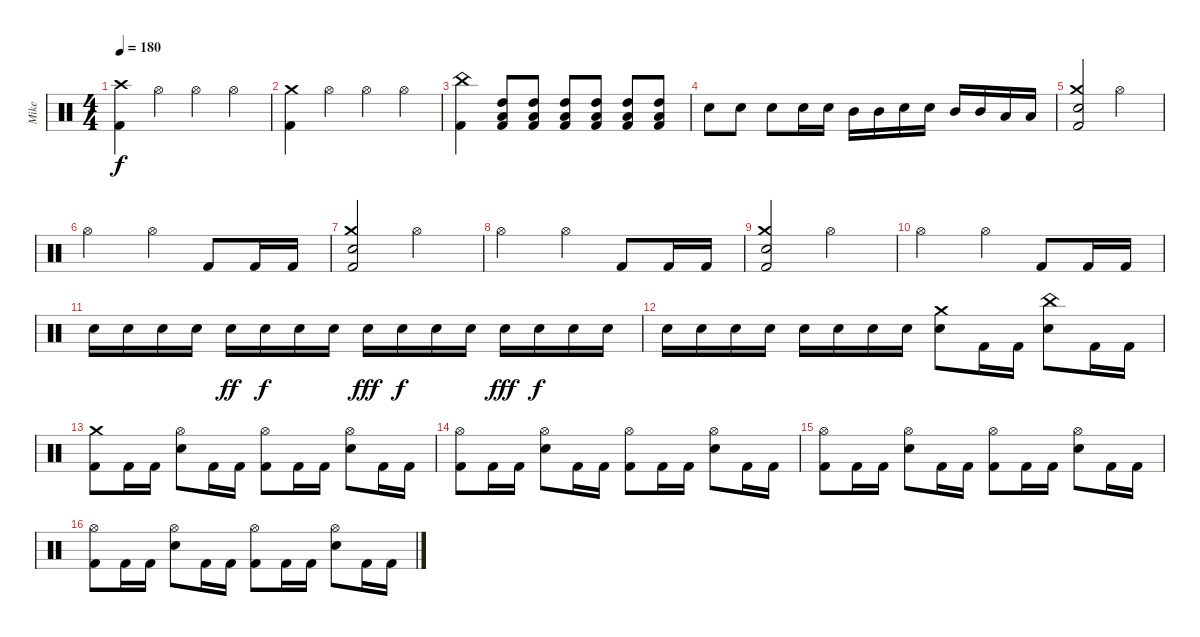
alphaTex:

\track ("Mike" "Mike") {instrument percussion}
\staff {score}
\articulation defaults
\ts (4 4)
\tempo 180
\clef neutral
\ks c
("Crash high (hit)" "Kick (hit) 2").4{dy f} "Hi-Hat (open)".4 "Hi-Hat (open)".4 "Hi-Hat (open)".4 |
("Crash medium (hit)" "Kick (hit) 2").4 "Hi-Hat (open)".4 "Hi-Hat (open)".4 "Hi-Hat (open)".4 |
("China (hit)" "Kick (hit) 2").4 ("High Tom (hit)" "Low Tom (hit)" "Kick (hit) 2").8 ("High Tom (hit)" "Low Tom (hit)" "Kick (hit) 2").8 ("High Tom (hit)" "Low Tom (hit)" "Kick (hit) 2").8 ("High Tom (hit)" "Low Tom (hit)" "Kick (hit) 2").8 ("High Tom (hit)" "Low Tom (hit)" "Kick (hit) 2").8 ("High Tom (hit)" "Low Tom (hit)" "Kick (hit) 2").8 |
"Electric Snare (hit)".8 "Electric Snare (hit)".8 "Electric Snare (hit)".8 "Electric Snare (hit)".16 "Electric Snare (hit)".16 "Mid Tom (hit)".16 "Mid Tom (hit)".16 "Electric Snare (hit)".16 "Electric Snare (hit)".16 "Mid Tom (hit)".16 "Mid Tom (hit)".16 "Low Tom (hit)".16 "Low Tom (hit)".16 |
("Crash medium (hit)" "Electric Snare (hit)" "Kick (hit) 2").2 "Hi-Hat (open)".2 |
"Hi-Hat (open)".2 "Hi-Hat (open)".4 "Kick (hit) 2".8 "Kick (hit) 2".16 "Kick (hit) 2".16 |
("Crash medium (hit)" "Electric Snare (hit)" "Kick (hit) 2").2 "Hi-Hat (open)".2 |
"Hi-Hat (open)".2 "Hi-Hat (open)".4 "Kick (hit) 2".8 "Kick (hit) 2".16 "Kick (hit) 2".16 |
("Crash medium (hit)" "Electric Snare (hit)" "Kick (hit) 2").2 "Hi-Hat (open)".2 |
"Hi-Hat (open)".2 "Hi-Hat (open)".4 "Kick (hit) 2".8 "Kick (hit) 2".16 "Kick (hit) 2".16 |
"Electric Snare (hit)".16 "Electric Snare (hit)".16 "Electric Snare (hit)".16 "Electric Snare (hit)".16 "Electric Snare (hit)".16{dy ff} "Electric Snare (hit)".16{dy f} "Electric Snare (hit)".16 "Electric Snare (hit)".16 "Electric Snare (hit)".16{dy fff} "Electric Snare (hit)".16{dy f} "Electric Snare (hit)".16 "Electric Snare (hit)".16 "Electric Snare (hit)".16{dy fff} "Electric Snare (hit)".16{dy f} "Electric Snare (hit)".16 "Electric Snare (hit)".16 |
"Electric Snare (hit)".16 "Electric Snare (hit)".16 "Electric Snare (hit)".16 "Electric Snare (hit)".16 "Electric Snare (hit)".16 "Electric Snare (hit)".16 "Electric Snare (hit)".16 "Electric Snare (hit)".16 ("Crash medium (hit)" "Electric Snare (hit)").8 "Kick (hit) 2".16 "Kick (hit) 2".16 ("China (hit)" "Electric Snare (hit)").8 "Kick (hit) 2".16 "Kick (hit) 2".16 |
("Crash medium (hit)" "Kick (hit) 2").8 "Kick (hit) 2".16 "Kick (hit) 2".16 ("Hi-Hat (open)" "Electric Snare (hit)").8 "Kick (hit) 2".16 "Kick (hit) 2".16 ("Hi-Hat (open)" "Kick (hit) 2").8 "Kick (hit) 2".16 "Kick (hit) 2".16 ("Hi-Hat (open)" "Electric Snare (hit)").8 "Kick (hit) 2".16 "Kick (hit) 2".16 |
("Hi-Hat (open)" "Kick (hit) 2").8 "Kick (hit) 2".16 "Kick (hit) 2".16 ("Hi-Hat (open)" "Electric Snare (hit)").8 "Kick (hit) 2".16 "Kick (hit) 2".16 ("Hi-Hat (open)" "Kick (hit) 2").8 "Kick (hit) 2".16 "Kick (hit) 2".16 ("Hi-Hat (open)" "Electric Snare (hit)").8 "Kick (hit) 2".16 "Kick (hit) 2".16 |
("Hi-Hat (open)" "Kick (hit) 2").8 "Kick (hit) 2".16 "Kick (hit) 2".16 ("Hi-Hat (open)" "Electric Snare (hit)").8 "Kick (hit) 2".16 "Kick (hit) 2".16 ("Hi-Hat (open)" "Kick (hit) 2").8 "Kick (hit) 2".16 "Kick (hit) 2".16 ("Hi-Hat (open)" "Electric Snare (hit)").8 "Kick (hit) 2".16 "Kick (hit) 2".16 |
("Hi-Hat (open)" "Kick (hit) 2").8 "Kick (hit) 2".16 "Kick (hit) 2".16 ("Hi-Hat (open)" "Electric Snare (hit)").8 "Kick (hit) 2".16 "Kick (hit) 2".16 ("Hi-Hat (open)" "Kick (hit) 2").8 "Kick (hit) 2".16 "Kick (hit) 2".16 ("Hi-Hat (open)" "Electric Snare (hit)").8 "Kick (hit) 2".16 "Kick (hit) 2".16
